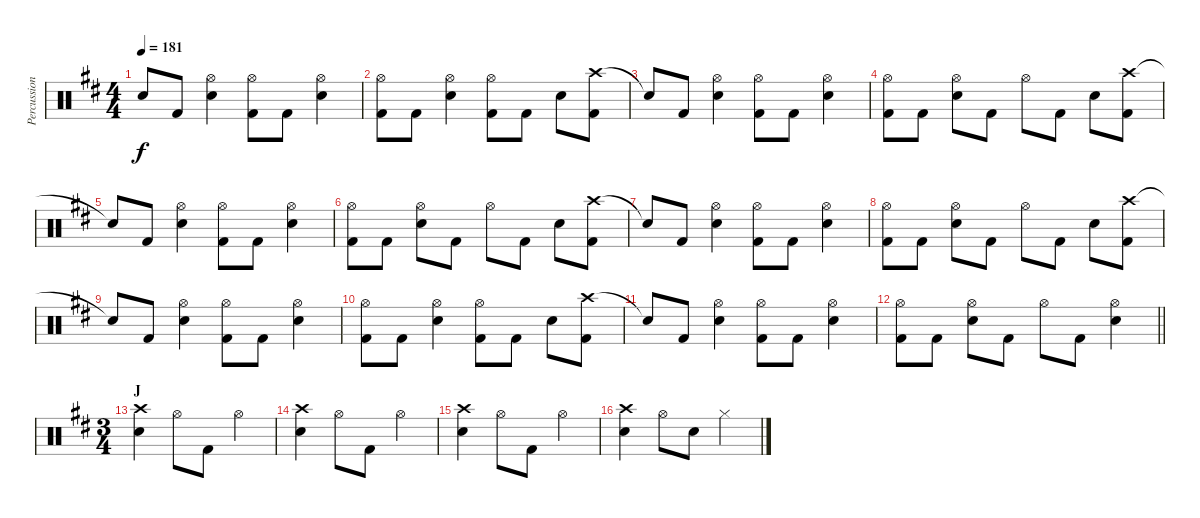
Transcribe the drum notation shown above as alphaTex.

\track ("Percussion" "Percussion") {instrument percussion}
\staff {score}
\articulation defaults
\ts (4 4)
\tempo 181
\clef neutral
\ks d "Snare (hit)"{t}.8{dy f} "Kick (hit) 2".8
("Hi-Hat (open)" "Snare (hit) 2").4 ("Hi-Hat (open)" "Kick (hit) 2").8 "Kick (hit) 2".8 ("Hi-Hat (open)" "Snare (hit) 2").4 |
("Hi-Hat (open)" "Kick (hit) 2").8 "Kick (hit) 2".8 ("Hi-Hat (open)" "Snare (hit) 2").4 ("Hi-Hat (open)" "Kick (hit) 2").8 "Kick (hit) 2".8 "Snare (hit) 2".8 ("Crash high (hit)" "Kick (hit) 2").8 |
"Snare (hit)"{t}.8 "Kick (hit) 2".8 ("Hi-Hat (open)" "Snare (hit) 2").4 ("Hi-Hat (open)" "Kick (hit) 2").8 "Kick (hit) 2".8 ("Hi-Hat (open)" "Snare (hit) 2").4 |
("Hi-Hat (open)" "Kick (hit) 2").8 "Kick (hit) 2".8 ("Hi-Hat (open)" "Snare (hit) 2").8 "Kick (hit) 2".8 "Hi-Hat (open)".8 "Kick (hit) 2".8 "Snare (hit) 2".8 ("Crash high (hit)" "Kick (hit) 2").8 |
"Snare (hit)"{t}.8 "Kick (hit) 2".8 ("Hi-Hat (open)" "Snare (hit) 2").4 ("Hi-Hat (open)" "Kick (hit) 2").8 "Kick (hit) 2".8 ("Hi-Hat (open)" "Snare (hit) 2").4 |
("Hi-Hat (open)" "Kick (hit) 2").8 "Kick (hit) 2".8 ("Hi-Hat (open)" "Snare (hit) 2").8 "Kick (hit) 2".8 "Hi-Hat (open)".8 "Kick (hit) 2".8 "Snare (hit) 2".8 ("Crash high (hit)" "Kick (hit) 2").8 |
"Snare (hit)"{t}.8 "Kick (hit) 2".8 ("Hi-Hat (open)" "Snare (hit) 2").4 ("Hi-Hat (open)" "Kick (hit) 2").8 "Kick (hit) 2".8 ("Hi-Hat (open)" "Snare (hit) 2").4 |
("Hi-Hat (open)" "Kick (hit) 2").8 "Kick (hit) 2".8 ("Hi-Hat (open)" "Snare (hit) 2").8 "Kick (hit) 2".8 "Hi-Hat (open)".8 "Kick (hit) 2".8 "Snare (hit) 2".8 ("Crash high (hit)" "Kick (hit) 2").8 |
"Snare (hit)"{t}.8 "Kick (hit) 2".8 ("Hi-Hat (open)" "Snare (hit) 2").4 ("Hi-Hat (open)" "Kick (hit) 2").8 "Kick (hit) 2".8 ("Hi-Hat (open)" "Snare (hit) 2").4 |
("Hi-Hat (open)" "Kick (hit) 2").8 "Kick (hit) 2".8 ("Hi-Hat (open)" "Snare (hit) 2").4 ("Hi-Hat (open)" "Kick (hit) 2").8 "Kick (hit) 2".8 "Snare (hit) 2".8 ("Crash high (hit)" "Kick (hit) 2").8 |
"Snare (hit)"{t}.8 "Kick (hit) 2".8 ("Hi-Hat (open)" "Snare (hit) 2").4 ("Hi-Hat (open)" "Kick (hit) 2").8 "Kick (hit) 2".8 ("Hi-Hat (open)" "Snare (hit) 2").4 |
\barLineRight lightlight
("Hi-Hat (open)" "Kick (hit) 2").8 "Kick (hit) 2".8 ("Hi-Hat (open)" "Snare (hit) 2").8 "Kick (hit) 2".8 "Hi-Hat (open)".8 "Kick (hit) 2".8 ("Hi-Hat (open)" "Snare (hit) 2").4 |
\ts (3 4)
\section ("" "J")
("Crash high (hit)" "Snare (hit) 2").4 "Hi-Hat (open)".8 "Kick (hit) 2".8 "Hi-Hat (open)".4 |
("Crash high (hit)" "Snare (hit) 2").4 "Hi-Hat (open)".8 "Kick (hit) 2".8 "Hi-Hat (open)".4 |
("Crash high (hit)" "Snare (hit) 2").4 "Hi-Hat (open)".8 "Kick (hit) 2".8 "Hi-Hat (open)".4 |
("Crash high (hit)" "Snare (hit) 2").4 "Hi-Hat (open)".8 "Snare (hit) 2".8 "Hi-Hat (closed)".4
